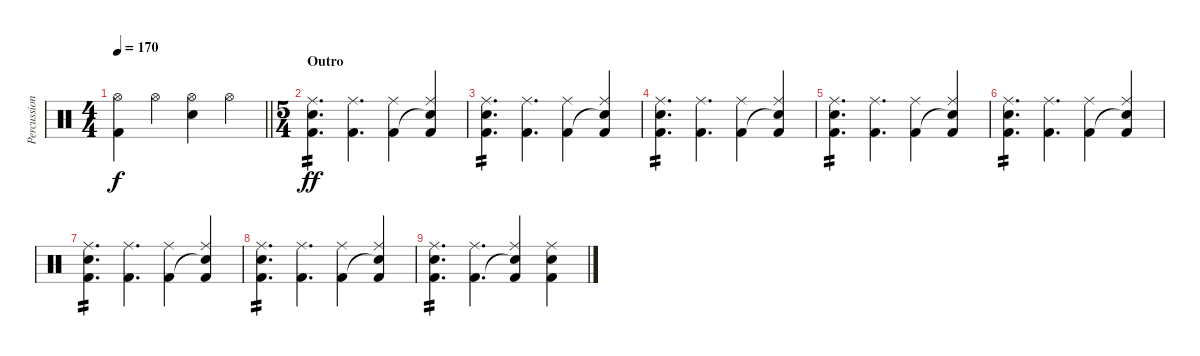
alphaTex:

\track ("Percussion" "Percussion") {instrument percussion}
\staff {score}
\articulation defaults
\ts (4 4)
\tempo 170
\clef neutral
\barLineRight lightlight
\ks c
("Hi-Hat (open)" "Kick (hit) 2").4{dy f} "Hi-Hat (open)".4 ("Hi-Hat (open)" "Electric Snare (hit)").4 "Hi-Hat (open)".4 |
\ts (5 4)
\section ("" "Outro")
("Ride (middle)" "Electric Snare (hit)" "Kick (hit) 2").4{d tp 2 dy ff} ("Ride (middle)" "Kick (hit) 2").4{d} ("Ride (middle)" "Kick (hit) 2").4 ("Ride (middle)" "Snare (hit)"{t} "Kick (hit) 2").4 |
("Ride (middle)" "Electric Snare (hit)" "Kick (hit) 2").4{d tp 2} ("Ride (middle)" "Kick (hit) 2").4{d} ("Ride (middle)" "Kick (hit) 2").4 ("Ride (middle)" "Snare (hit)"{t} "Kick (hit) 2").4 |
("Ride (middle)" "Electric Snare (hit)" "Kick (hit) 2").4{d tp 2} ("Ride (middle)" "Kick (hit) 2").4{d} ("Ride (middle)" "Kick (hit) 2").4 ("Ride (middle)" "Snare (hit)"{t} "Kick (hit) 2").4 |
("Ride (middle)" "Electric Snare (hit)" "Kick (hit) 2").4{d tp 2} ("Ride (middle)" "Kick (hit) 2").4{d} ("Ride (middle)" "Kick (hit) 2").4 ("Ride (middle)" "Snare (hit)"{t} "Kick (hit) 2").4 |
("Ride (middle)" "Electric Snare (hit)" "Kick (hit) 2").4{d tp 2} ("Ride (middle)" "Kick (hit) 2").4{d} ("Ride (middle)" "Kick (hit) 2").4 ("Ride (middle)" "Snare (hit)"{t} "Kick (hit) 2").4 |
("Ride (middle)" "Electric Snare (hit)" "Kick (hit) 2").4{d tp 2} ("Ride (middle)" "Kick (hit) 2").4{d} ("Ride (middle)" "Kick (hit) 2").4 ("Ride (middle)" "Snare (hit)"{t} "Kick (hit) 2").4 |
("Ride (middle)" "Electric Snare (hit)" "Kick (hit) 2").4{d tp 2} ("Ride (middle)" "Kick (hit) 2").4{d} ("Ride (middle)" "Kick (hit) 2").4 ("Ride (middle)" "Snare (hit)"{t} "Kick (hit) 2").4 |
("Ride (middle)" "Electric Snare (hit)" "Kick (hit) 2").4{d tp 2} ("Ride (middle)" "Kick (hit) 2").4{d} ("Ride (middle)" "Snare (hit)"{t} "Kick (hit) 2").4 ("Ride (middle)" "Electric Snare (hit)" "Kick (hit) 2").4
